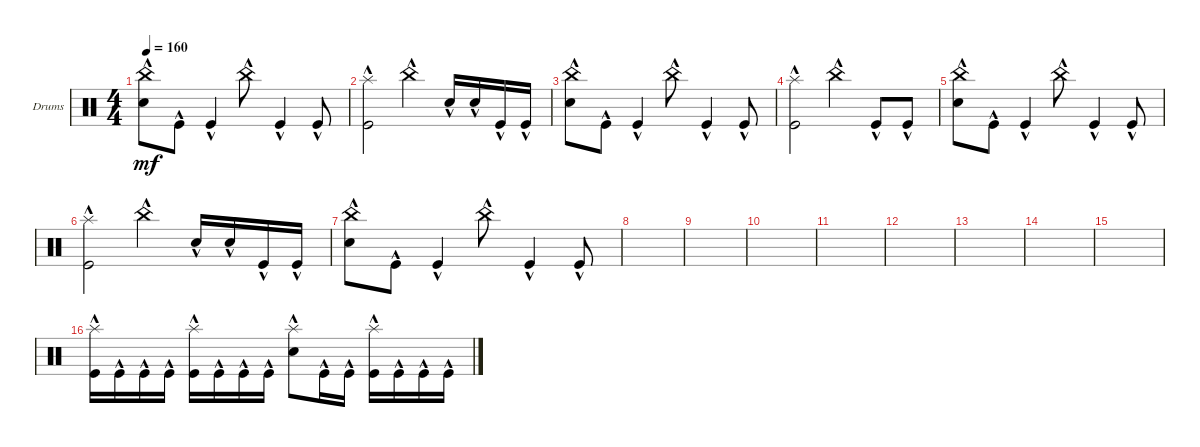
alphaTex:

\defaultSystemsLayout 4
\bracketExtendMode groupsimilarinstruments
\firstSystemTrackNameOrientation horizontal
\otherSystemsTrackNameOrientation horizontal
\track ("Drums" "Drums") {instrument percussion}
\staff {score}
\articulation defaults
\ts (4 4)
\tempo 160
\clef neutral
\ks c
("China (hit)"{hac} "Snare (hit) 2"{hac}).8{dy mf} "Kick (hit)"{hac}.8 "Kick (hit)"{hac}.4 "China (hit)"{hac}.8 "Kick (hit)"{hac}.4 "Kick (hit)"{hac}.8 |
("Kick (hit)"{hac} "Splash (hit)"{hac}).2 "China (hit)"{hac}.4 "Snare (hit) 2"{hac}.16 "Snare (hit) 2"{hac}.16 "Kick (hit)"{hac}.16 "Kick (hit)"{hac}.16 |
("China (hit)"{hac} "Snare (hit) 2"{hac}).8 "Kick (hit)"{hac}.8 "Kick (hit)"{hac}.4 "China (hit)"{hac}.8 "Kick (hit)"{hac}.4 "Kick (hit)"{hac}.8 |
("Kick (hit)"{hac} "Splash (hit)"{hac}).2 "China (hit)"{hac}.4 "Kick (hit)"{hac}.8 "Kick (hit)"{hac}.8 |
("China (hit)"{hac} "Snare (hit) 2"{hac}).8 "Kick (hit)"{hac}.8 "Kick (hit)"{hac}.4 "China (hit)"{hac}.8 "Kick (hit)"{hac}.4 "Kick (hit)"{hac}.8 |
("Kick (hit)"{hac} "Splash (hit)"{hac}).2 "China (hit)"{hac}.4 "Snare (hit) 2"{hac}.16 "Snare (hit) 2"{hac}.16 "Kick (hit)"{hac}.16 "Kick (hit)"{hac}.16 |
("China (hit)"{hac} "Snare (hit) 2"{hac}).8 "Kick (hit)"{hac}.8 "Kick (hit)"{hac}.4 "China (hit)"{hac}.8 "Kick (hit)"{hac}.4 "Kick (hit)"{hac}.8 |
|
|
|
|
|
|
|
|
("Kick (hit)"{hac} "Splash (hit)"{hac}).16 "Kick (hit)"{hac}.16 "Kick (hit)"{hac}.16 "Kick (hit)"{hac}.16 ("Kick (hit)"{hac} "Splash (hit)"{hac}).16 "Kick (hit)"{hac}.16 "Kick (hit)"{hac}.16 "Kick (hit)"{hac}.16 ("Snare (hit) 2"{hac} "Splash (hit)"{hac}).8 "Kick (hit)"{hac}.16 "Kick (hit)"{hac}.16 ("Kick (hit)"{hac} "Splash (hit)"{hac}).16 "Kick (hit)"{hac}.16 "Kick (hit)"{hac}.16 "Kick (hit)"{hac}.16
